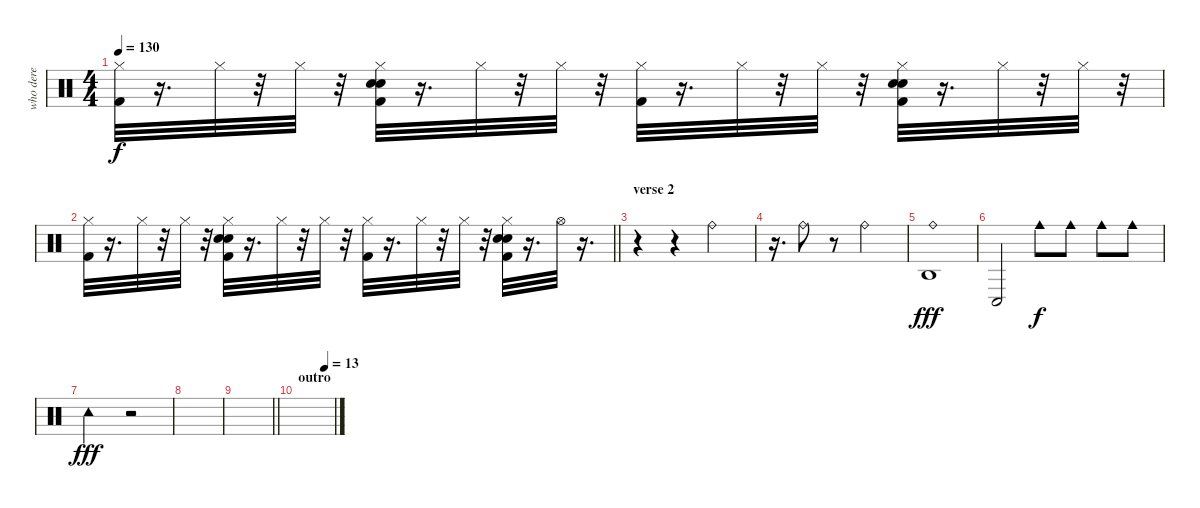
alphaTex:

\track ("who dere" "who dere") {instrument percussion}
\staff {score}
\articulation defaults
\ts (4 4)
\tempo 130
\clef neutral
\ks c
("Hi-Hat (closed)" "Kick (hit) 2").32{dy f} r.16{d} "Hi-Hat (closed)".32 r.32 "Hi-Hat (closed)".32 r.32 ("Hi-Hat (closed)" "Snare (hit) 2" "Kick (hit) 2" "Hand Clap (hit)").32 r.16{d} "Hi-Hat (closed)".32 r.32 "Hi-Hat (closed)".32 r.32 ("Hi-Hat (closed)" "Kick (hit) 2").32 r.16{d} "Hi-Hat (closed)".32 r.32 "Hi-Hat (closed)".32 r.32 ("Hi-Hat (closed)" "Snare (hit) 2" "Kick (hit) 2" "Hand Clap (hit)").32 r.16{d} "Hi-Hat (closed)".32 r.32 "Hi-Hat (closed)".32 r.32 |
\barLineRight lightlight
("Hi-Hat (closed)" "Kick (hit) 2").32 r.16{d} "Hi-Hat (closed)".32 r.32 "Hi-Hat (closed)".32 r.32 ("Hi-Hat (closed)" "Snare (hit) 2" "Kick (hit) 2" "Hand Clap (hit)").32 r.16{d} "Hi-Hat (closed)".32 r.32 "Hi-Hat (closed)".32 r.32 ("Hi-Hat (closed)" "Kick (hit) 2").32 r.16{d} "Hi-Hat (closed)".32 r.32 "Hi-Hat (closed)".32 r.32 ("Hi-Hat (closed)" "Snare (hit) 2" "Kick (hit) 2" "Hand Clap (hit)").32 r.16{d} "Hi-Hat (open)".32 r.16{d} |
\section ("" "verse 2")
r.4 r.4 "Ride (bell)".2 |
r.16{d} "Ride (bell)".8 r.8 "Ride (bell)".2 |
("Agogo high (hit)" "Ride (bell)").1{dy fff} |
"Conga low (hit)".2 "Cowbell medium (hit)".8{dy f} "Cowbell medium (hit)".8 "Cowbell medium (hit)".8 "Cowbell medium (hit)".8 |
"Tambourine (hit)".2{dy fff} r.2 |
|
\barLineRight lightlight
|
\section ("" "outro")
\tempo (13 0.75)
